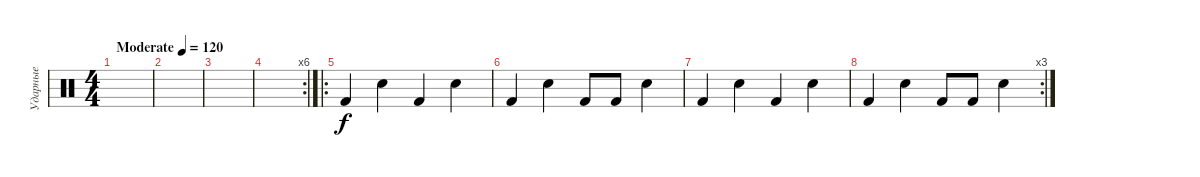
\track ("Ударные" "Ударные") {instrument percussion}
\staff {score}
\articulation defaults
\ts (4 4)
\tempo (120 "Moderate")
\clef neutral
\ks c
|
|
|
\rc 6
|
\ro "Kick (hit) 2".4 "Electric Snare (hit)".4 "Kick (hit) 2".4 "Electric Snare (hit)".4
|
"Kick (hit) 2".4 "Electric Snare (hit)".4 "Kick (hit) 2".8 "Kick (hit) 2".8 "Electric Snare (hit)".4 |
"Kick (hit) 2".4 "Electric Snare (hit)".4 "Kick (hit) 2".4 "Electric Snare (hit)".4 |
\rc 3 "Kick (hit) 2".4 "Electric Snare (hit)".4 "Kick (hit) 2".8 "Kick (hit) 2".8 "Electric Snare (hit)".4
